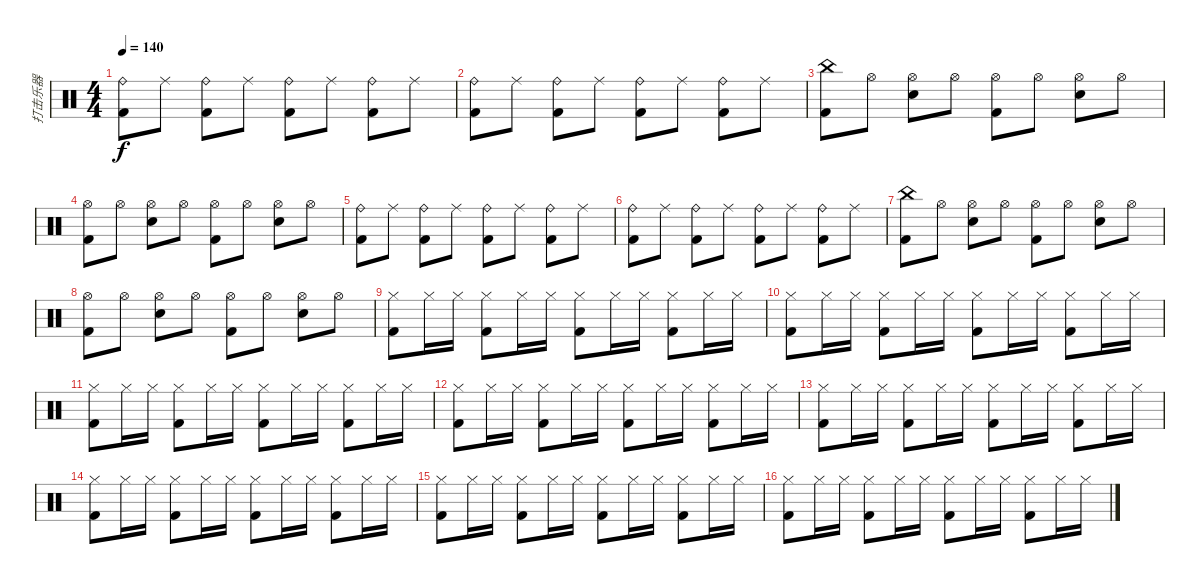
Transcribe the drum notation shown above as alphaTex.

\track ("打击乐器" "打击乐器") {instrument percussion}
\staff {score}
\articulation defaults
\ts (4 4)
\tempo 140
\clef neutral
\ks c
("Ride (bell)" "Kick (hit) 2").8{dy f} "Ride (middle)".8 ("Ride (bell)" "Kick (hit) 2").8 "Ride (middle)".8 ("Ride (bell)" "Kick (hit) 2").8 "Ride (middle)".8 ("Ride (bell)" "Kick (hit) 2").8 "Ride (middle)".8 |
("Ride (bell)" "Kick (hit) 2").8 "Ride (middle)".8 ("Ride (bell)" "Kick (hit) 2").8 "Ride (middle)".8 ("Ride (bell)" "Kick (hit) 2").8 "Ride (middle)".8 ("Ride (bell)" "Kick (hit) 2").8 "Ride (middle)".8 |
("China (hit)" "Kick (hit) 2").8 "Hi-Hat (open)".8 ("Hi-Hat (open)" "Snare (hit) 2").8 "Hi-Hat (open)".8 ("Hi-Hat (open)" "Kick (hit) 2").8 "Hi-Hat (open)".8 ("Hi-Hat (open)" "Snare (hit) 2").8 "Hi-Hat (open)".8 |
("Hi-Hat (open)" "Kick (hit) 2").8 "Hi-Hat (open)".8 ("Hi-Hat (open)" "Snare (hit) 2").8 "Hi-Hat (open)".8 ("Hi-Hat (open)" "Kick (hit) 2").8 "Hi-Hat (open)".8 ("Hi-Hat (open)" "Snare (hit) 2").8 "Hi-Hat (open)".8 |
("Ride (bell)" "Kick (hit) 2").8 "Ride (middle)".8 ("Ride (bell)" "Kick (hit) 2").8 "Ride (middle)".8 ("Ride (bell)" "Kick (hit) 2").8 "Ride (middle)".8 ("Ride (bell)" "Kick (hit) 2").8 "Ride (middle)".8 |
("Ride (bell)" "Kick (hit) 2").8 "Ride (middle)".8 ("Ride (bell)" "Kick (hit) 2").8 "Ride (middle)".8 ("Ride (bell)" "Kick (hit) 2").8 "Ride (middle)".8 ("Ride (bell)" "Kick (hit) 2").8 "Ride (middle)".8 |
("China (hit)" "Kick (hit) 2").8 "Hi-Hat (open)".8 ("Hi-Hat (open)" "Snare (hit) 2").8 "Hi-Hat (open)".8 ("Hi-Hat (open)" "Kick (hit) 2").8 "Hi-Hat (open)".8 ("Hi-Hat (open)" "Snare (hit) 2").8 "Hi-Hat (open)".8 |
("Hi-Hat (open)" "Kick (hit) 2").8 "Hi-Hat (open)".8 ("Hi-Hat (open)" "Snare (hit) 2").8 "Hi-Hat (open)".8 ("Hi-Hat (open)" "Kick (hit) 2").8 "Hi-Hat (open)".8 ("Hi-Hat (open)" "Snare (hit) 2").8 "Hi-Hat (open)".8 |
("Hi-Hat (closed)" "Kick (hit) 2").8 "Hi-Hat (closed)".16 "Hi-Hat (closed)".16 ("Hi-Hat (closed)" "Kick (hit) 2").8 "Hi-Hat (closed)".16 "Hi-Hat (closed)".16 ("Hi-Hat (closed)" "Kick (hit) 2").8 "Hi-Hat (closed)".16 "Hi-Hat (closed)".16 ("Hi-Hat (closed)" "Kick (hit) 2").8 "Hi-Hat (closed)".16 "Hi-Hat (closed)".16 |
("Hi-Hat (closed)" "Kick (hit) 2").8 "Hi-Hat (closed)".16 "Hi-Hat (closed)".16 ("Hi-Hat (closed)" "Kick (hit) 2").8 "Hi-Hat (closed)".16 "Hi-Hat (closed)".16 ("Hi-Hat (closed)" "Kick (hit) 2").8 "Hi-Hat (closed)".16 "Hi-Hat (closed)".16 ("Hi-Hat (closed)" "Kick (hit) 2").8 "Hi-Hat (closed)".16 "Hi-Hat (closed)".16 |
("Hi-Hat (closed)" "Kick (hit) 2").8 "Hi-Hat (closed)".16 "Hi-Hat (closed)".16 ("Hi-Hat (closed)" "Kick (hit) 2").8 "Hi-Hat (closed)".16 "Hi-Hat (closed)".16 ("Hi-Hat (closed)" "Kick (hit) 2").8 "Hi-Hat (closed)".16 "Hi-Hat (closed)".16 ("Hi-Hat (closed)" "Kick (hit) 2").8 "Hi-Hat (closed)".16 "Hi-Hat (closed)".16 |
("Hi-Hat (closed)" "Kick (hit) 2").8 "Hi-Hat (closed)".16 "Hi-Hat (closed)".16 ("Hi-Hat (closed)" "Kick (hit) 2").8 "Hi-Hat (closed)".16 "Hi-Hat (closed)".16 ("Hi-Hat (closed)" "Kick (hit) 2").8 "Hi-Hat (closed)".16 "Hi-Hat (closed)".16 ("Hi-Hat (closed)" "Kick (hit) 2").8 "Hi-Hat (closed)".16 "Hi-Hat (closed)".16 |
("Hi-Hat (closed)" "Kick (hit) 2").8 "Hi-Hat (closed)".16 "Hi-Hat (closed)".16 ("Hi-Hat (closed)" "Kick (hit) 2").8 "Hi-Hat (closed)".16 "Hi-Hat (closed)".16 ("Hi-Hat (closed)" "Kick (hit) 2").8 "Hi-Hat (closed)".16 "Hi-Hat (closed)".16 ("Hi-Hat (closed)" "Kick (hit) 2").8 "Hi-Hat (closed)".16 "Hi-Hat (closed)".16 |
("Hi-Hat (closed)" "Kick (hit) 2").8 "Hi-Hat (closed)".16 "Hi-Hat (closed)".16 ("Hi-Hat (closed)" "Kick (hit) 2").8 "Hi-Hat (closed)".16 "Hi-Hat (closed)".16 ("Hi-Hat (closed)" "Kick (hit) 2").8 "Hi-Hat (closed)".16 "Hi-Hat (closed)".16 ("Hi-Hat (closed)" "Kick (hit) 2").8 "Hi-Hat (closed)".16 "Hi-Hat (closed)".16 |
("Hi-Hat (closed)" "Kick (hit) 2").8 "Hi-Hat (closed)".16 "Hi-Hat (closed)".16 ("Hi-Hat (closed)" "Kick (hit) 2").8 "Hi-Hat (closed)".16 "Hi-Hat (closed)".16 ("Hi-Hat (closed)" "Kick (hit) 2").8 "Hi-Hat (closed)".16 "Hi-Hat (closed)".16 ("Hi-Hat (closed)" "Kick (hit) 2").8 "Hi-Hat (closed)".16 "Hi-Hat (closed)".16 |
("Hi-Hat (closed)" "Kick (hit) 2").8 "Hi-Hat (closed)".16 "Hi-Hat (closed)".16 ("Hi-Hat (closed)" "Kick (hit) 2").8 "Hi-Hat (closed)".16 "Hi-Hat (closed)".16 ("Hi-Hat (closed)" "Kick (hit) 2").8 "Hi-Hat (closed)".16 "Hi-Hat (closed)".16 ("Hi-Hat (closed)" "Kick (hit) 2").8 "Hi-Hat (closed)".16 "Hi-Hat (closed)".16
